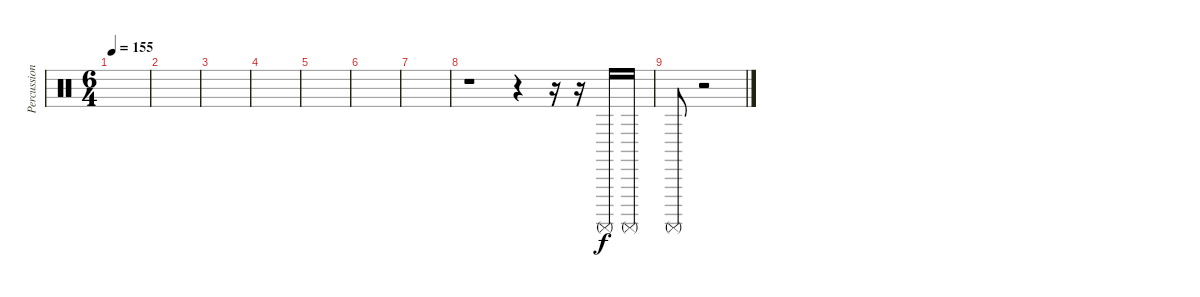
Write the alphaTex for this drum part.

\track ("Percussion" "Percussion") {instrument percussion}
\staff {score}
\articulation defaults
\ts (6 4)
\tempo 155
\clef neutral
\ks c
|
|
|
|
|
|
|
r.1 r.4 r.16 r.16 "Surdo (mute)".16 "Surdo (mute)".16 |
"Surdo (mute)".8 r.2
